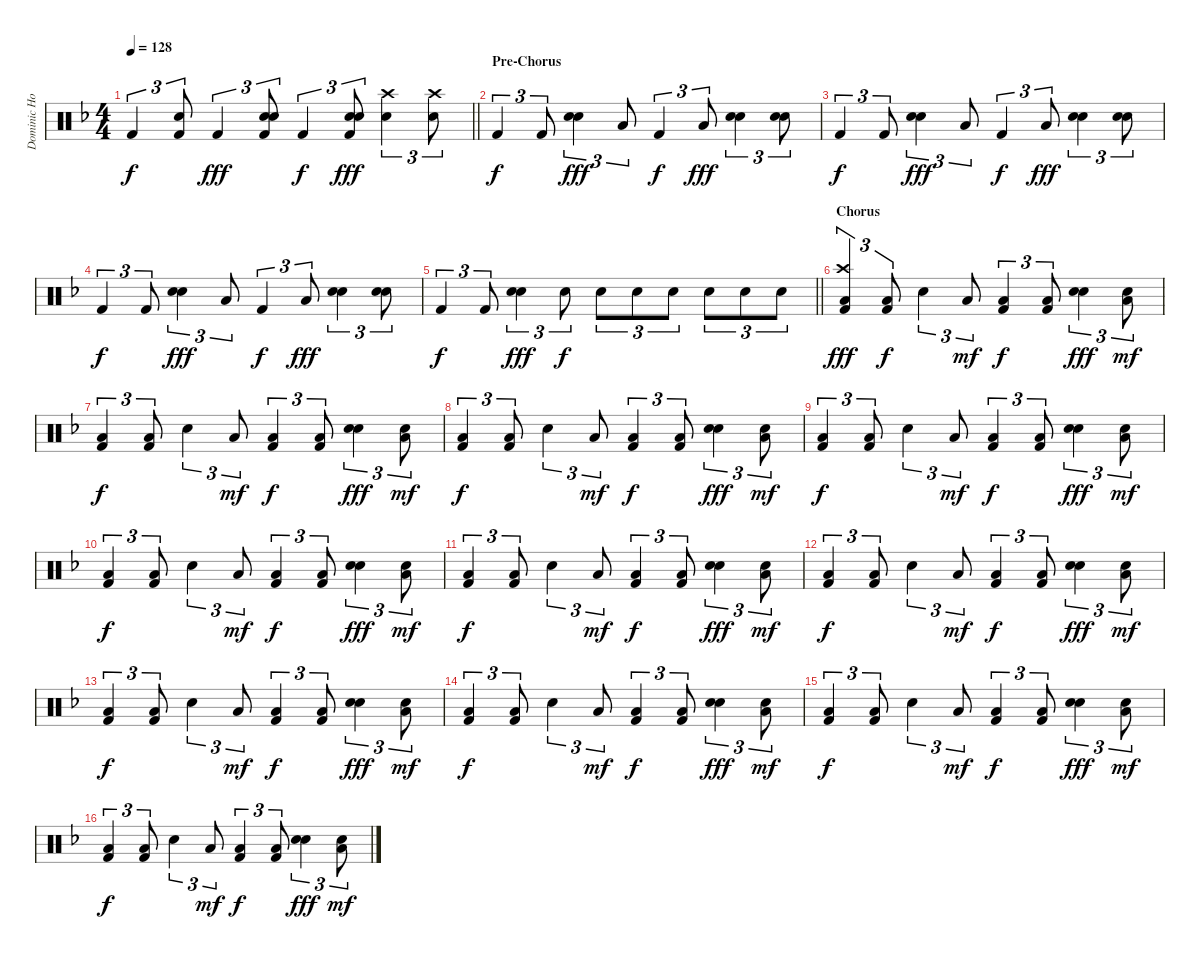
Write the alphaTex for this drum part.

\track ("Dominic Howard Drums" "Dominic Ho") {instrument percussion}
\staff {score}
\articulation defaults
\ts (4 4)
\tempo 128
\clef neutral
\barLineRight lightlight
\ks dminor "Kick (hit) 2".4{tu (3 2) dy f}
("Snare (hit) 2" "Kick (hit) 2").8{tu (3 2)} "Kick (hit) 2".4{tu (3 2) dy fff} ("Electric Snare (hit)" "Snare (hit) 2" "Kick (hit) 2").8{tu (3 2)} "Kick (hit) 2".4{tu (3 2) dy f} ("Electric Snare (hit)" "Snare (hit) 2" "Kick (hit) 2").8{tu (3 2) dy fff} ("Crash high (hit)" "Snare (hit) 2").4{tu (3 2)} ("Crash high (hit)" "Snare (hit) 2").8{tu (3 2)} |
\section ("" "Pre-Chorus")
"Kick (hit) 2".4{tu (3 2) dy f} "Kick (hit) 2".8{tu (3 2)} ("Electric Snare (hit)" "Snare (hit) 2").4{tu (3 2) dy fff} "Low Floor Tom (hit)".8{tu (3 2)} "Kick (hit) 2".4{tu (3 2) dy f} "Low Floor Tom (hit)".8{tu (3 2) dy fff} ("Hand Clap (hit)" "Snare (hit) 2").4{tu (3 2)} ("Hand Clap (hit)" "Snare (hit) 2").8{tu (3 2)} |
"Kick (hit) 2".4{tu (3 2) dy f} "Kick (hit) 2".8{tu (3 2)} ("Electric Snare (hit)" "Snare (hit) 2").4{tu (3 2) dy fff} "Low Floor Tom (hit)".8{tu (3 2)} "Kick (hit) 2".4{tu (3 2) dy f} "Low Floor Tom (hit)".8{tu (3 2) dy fff} ("Hand Clap (hit)" "Snare (hit) 2").4{tu (3 2)} ("Hand Clap (hit)" "Snare (hit) 2").8{tu (3 2)} |
"Kick (hit) 2".4{tu (3 2) dy f} "Kick (hit) 2".8{tu (3 2)} ("Electric Snare (hit)" "Snare (hit) 2").4{tu (3 2) dy fff} "Low Floor Tom (hit)".8{tu (3 2)} "Kick (hit) 2".4{tu (3 2) dy f} "Low Floor Tom (hit)".8{tu (3 2) dy fff} ("Hand Clap (hit)" "Snare (hit) 2").4{tu (3 2)} ("Hand Clap (hit)" "Snare (hit) 2").8{tu (3 2)} |
\barLineRight lightlight "Kick (hit) 2".4{tu (3 2) dy f} "Kick (hit) 2".8{tu (3 2)}
("Electric Snare (hit)" "Snare (hit) 2").4{tu (3 2) dy fff} "Snare (hit) 2".8{tu (3 2) dy f} "Snare (hit) 2".8{tu (3 2)} "Snare (hit) 2".8{tu (3 2)} "Snare (hit) 2".8{tu (3 2)} "Snare (hit) 2".8{tu (3 2)} "Snare (hit) 2".8{tu (3 2)} "Snare (hit) 2".8{tu (3 2)} |
\section ("" "Chorus")
("Crash high (hit)" "Low Floor Tom (hit)" "Kick (hit) 2").4{tu (3 2) dy fff} ("Low Floor Tom (hit)" "Kick (hit) 2").8{tu (3 2) dy f} "Snare (hit) 2".4{tu (3 2)} "Low Tom (hit)".8{tu (3 2) dy mf} ("Low Floor Tom (hit)" "Kick (hit) 2").4{tu (3 2) dy f} ("Low Floor Tom (hit)" "Kick (hit) 2").8{tu (3 2)} ("Hand Clap (hit)" "Snare (hit) 2").4{tu (3 2) dy fff} ("Hand Clap (hit)" "Low Tom (hit)").8{tu (3 2) dy mf} |
("Low Floor Tom (hit)" "Kick (hit) 2").4{tu (3 2) dy f} ("Low Floor Tom (hit)" "Kick (hit) 2").8{tu (3 2)} "Snare (hit) 2".4{tu (3 2)} "Low Tom (hit)".8{tu (3 2) dy mf} ("Low Floor Tom (hit)" "Kick (hit) 2").4{tu (3 2) dy f} ("Low Floor Tom (hit)" "Kick (hit) 2").8{tu (3 2)} ("Hand Clap (hit)" "Snare (hit) 2").4{tu (3 2) dy fff} ("Hand Clap (hit)" "Low Tom (hit)").8{tu (3 2) dy mf} |
("Low Floor Tom (hit)" "Kick (hit) 2").4{tu (3 2) dy f} ("Low Floor Tom (hit)" "Kick (hit) 2").8{tu (3 2)} "Snare (hit) 2".4{tu (3 2)} "Low Tom (hit)".8{tu (3 2) dy mf} ("Low Floor Tom (hit)" "Kick (hit) 2").4{tu (3 2) dy f} ("Low Floor Tom (hit)" "Kick (hit) 2").8{tu (3 2)} ("Hand Clap (hit)" "Snare (hit) 2").4{tu (3 2) dy fff} ("Hand Clap (hit)" "Low Tom (hit)").8{tu (3 2) dy mf} |
("Low Floor Tom (hit)" "Kick (hit) 2").4{tu (3 2) dy f} ("Low Floor Tom (hit)" "Kick (hit) 2").8{tu (3 2)} "Snare (hit) 2".4{tu (3 2)} "Low Tom (hit)".8{tu (3 2) dy mf} ("Low Floor Tom (hit)" "Kick (hit) 2").4{tu (3 2) dy f} ("Low Floor Tom (hit)" "Kick (hit) 2").8{tu (3 2)} ("Hand Clap (hit)" "Snare (hit) 2").4{tu (3 2) dy fff} ("Hand Clap (hit)" "Low Tom (hit)").8{tu (3 2) dy mf} |
("Low Floor Tom (hit)" "Kick (hit) 2").4{tu (3 2) dy f} ("Low Floor Tom (hit)" "Kick (hit) 2").8{tu (3 2)} "Snare (hit) 2".4{tu (3 2)} "Low Tom (hit)".8{tu (3 2) dy mf} ("Low Floor Tom (hit)" "Kick (hit) 2").4{tu (3 2) dy f} ("Low Floor Tom (hit)" "Kick (hit) 2").8{tu (3 2)} ("Hand Clap (hit)" "Snare (hit) 2").4{tu (3 2) dy fff} ("Hand Clap (hit)" "Low Tom (hit)").8{tu (3 2) dy mf} |
("Low Floor Tom (hit)" "Kick (hit) 2").4{tu (3 2) dy f} ("Low Floor Tom (hit)" "Kick (hit) 2").8{tu (3 2)} "Snare (hit) 2".4{tu (3 2)} "Low Tom (hit)".8{tu (3 2) dy mf} ("Low Floor Tom (hit)" "Kick (hit) 2").4{tu (3 2) dy f} ("Low Floor Tom (hit)" "Kick (hit) 2").8{tu (3 2)} ("Hand Clap (hit)" "Snare (hit) 2").4{tu (3 2) dy fff} ("Hand Clap (hit)" "Low Tom (hit)").8{tu (3 2) dy mf} |
("Low Floor Tom (hit)" "Kick (hit) 2").4{tu (3 2) dy f} ("Low Floor Tom (hit)" "Kick (hit) 2").8{tu (3 2)} "Snare (hit) 2".4{tu (3 2)} "Low Tom (hit)".8{tu (3 2) dy mf} ("Low Floor Tom (hit)" "Kick (hit) 2").4{tu (3 2) dy f} ("Low Floor Tom (hit)" "Kick (hit) 2").8{tu (3 2)} ("Hand Clap (hit)" "Snare (hit) 2").4{tu (3 2) dy fff} ("Hand Clap (hit)" "Low Tom (hit)").8{tu (3 2) dy mf} |
("Low Floor Tom (hit)" "Kick (hit) 2").4{tu (3 2) dy f} ("Low Floor Tom (hit)" "Kick (hit) 2").8{tu (3 2)} "Snare (hit) 2".4{tu (3 2)} "Low Tom (hit)".8{tu (3 2) dy mf} ("Low Floor Tom (hit)" "Kick (hit) 2").4{tu (3 2) dy f} ("Low Floor Tom (hit)" "Kick (hit) 2").8{tu (3 2)} ("Hand Clap (hit)" "Snare (hit) 2").4{tu (3 2) dy fff} ("Hand Clap (hit)" "Low Tom (hit)").8{tu (3 2) dy mf} |
("Low Floor Tom (hit)" "Kick (hit) 2").4{tu (3 2) dy f} ("Low Floor Tom (hit)" "Kick (hit) 2").8{tu (3 2)} "Snare (hit) 2".4{tu (3 2)} "Low Tom (hit)".8{tu (3 2) dy mf} ("Low Floor Tom (hit)" "Kick (hit) 2").4{tu (3 2) dy f} ("Low Floor Tom (hit)" "Kick (hit) 2").8{tu (3 2)} ("Hand Clap (hit)" "Snare (hit) 2").4{tu (3 2) dy fff} ("Hand Clap (hit)" "Low Tom (hit)").8{tu (3 2) dy mf} |
("Low Floor Tom (hit)" "Kick (hit) 2").4{tu (3 2) dy f} ("Low Floor Tom (hit)" "Kick (hit) 2").8{tu (3 2)} "Snare (hit) 2".4{tu (3 2)} "Low Tom (hit)".8{tu (3 2) dy mf} ("Low Floor Tom (hit)" "Kick (hit) 2").4{tu (3 2) dy f} ("Low Floor Tom (hit)" "Kick (hit) 2").8{tu (3 2)} ("Hand Clap (hit)" "Snare (hit) 2").4{tu (3 2) dy fff} ("Hand Clap (hit)" "Low Tom (hit)").8{tu (3 2) dy mf} |
("Low Floor Tom (hit)" "Kick (hit) 2").4{tu (3 2) dy f} ("Low Floor Tom (hit)" "Kick (hit) 2").8{tu (3 2)} "Snare (hit) 2".4{tu (3 2)} "Low Tom (hit)".8{tu (3 2) dy mf} ("Low Floor Tom (hit)" "Kick (hit) 2").4{tu (3 2) dy f} ("Low Floor Tom (hit)" "Kick (hit) 2").8{tu (3 2)} ("Hand Clap (hit)" "Snare (hit) 2").4{tu (3 2) dy fff} ("Hand Clap (hit)" "Low Tom (hit)").8{tu (3 2) dy mf}
